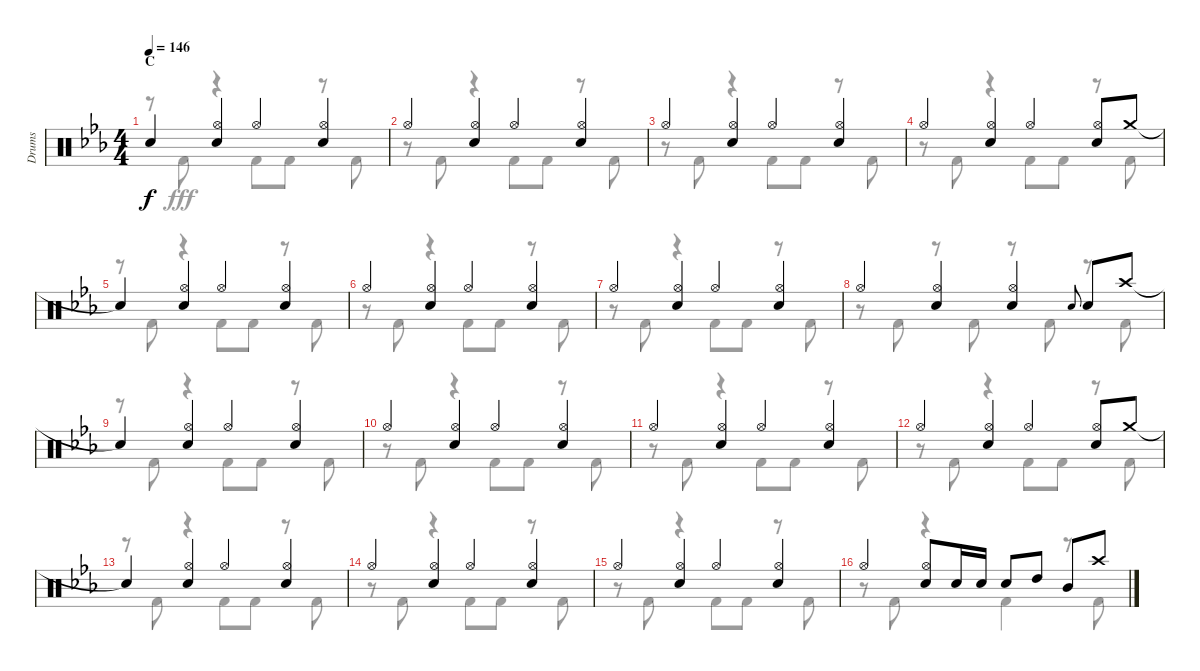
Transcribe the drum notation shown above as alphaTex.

\track ("Drums" "Drums") {instrument percussion}
\staff {score}
\articulation defaults
\voice
\ts (4 4)
\section ("" "C")
\tempo 146
\clef neutral
\ks eb "Snare (hit)"{t}.4{dy f}
("Hi-Hat (open)" "Snare (hit) 2").4 "Hi-Hat (open)".4 ("Hi-Hat (open)" "Snare (hit) 2").4 |
"Hi-Hat (open)".4 ("Hi-Hat (open)" "Snare (hit) 2").4 "Hi-Hat (open)".4 ("Hi-Hat (open)" "Snare (hit) 2").4 |
"Hi-Hat (open)".4 ("Hi-Hat (open)" "Snare (hit) 2").4 "Hi-Hat (open)".4 ("Hi-Hat (open)" "Snare (hit) 2").4 |
"Hi-Hat (open)".4 ("Hi-Hat (open)" "Snare (hit) 2").4 "Hi-Hat (open)".4 ("Hi-Hat (open)" "Snare (hit) 2").8 "Crash medium (hit)".8 |
"Snare (hit)"{t}.4 ("Hi-Hat (open)" "Snare (hit) 2").4 "Hi-Hat (open)".4 ("Hi-Hat (open)" "Snare (hit) 2").4 |
"Hi-Hat (open)".4 ("Hi-Hat (open)" "Snare (hit) 2").4 "Hi-Hat (open)".4 ("Hi-Hat (open)" "Snare (hit) 2").4 |
"Hi-Hat (open)".4 ("Hi-Hat (open)" "Snare (hit) 2").4 "Hi-Hat (open)".4 ("Hi-Hat (open)" "Snare (hit) 2").4 |
"Hi-Hat (open)".4 ("Hi-Hat (open)" "Snare (hit) 2").4 ("Hi-Hat (open)" "Snare (hit) 2").4 "Snare (hit) 2".8{gr onbeat} "Snare (hit) 2".8 "Crash high (hit)".8 |
"Snare (hit)"{t}.4 ("Hi-Hat (open)" "Snare (hit) 2").4 "Hi-Hat (open)".4 ("Hi-Hat (open)" "Snare (hit) 2").4 |
"Hi-Hat (open)".4 ("Hi-Hat (open)" "Snare (hit) 2").4 "Hi-Hat (open)".4 ("Hi-Hat (open)" "Snare (hit) 2").4 |
"Hi-Hat (open)".4 ("Hi-Hat (open)" "Snare (hit) 2").4 "Hi-Hat (open)".4 ("Hi-Hat (open)" "Snare (hit) 2").4 |
"Hi-Hat (open)".4 ("Hi-Hat (open)" "Snare (hit) 2").4 "Hi-Hat (open)".4 ("Hi-Hat (open)" "Snare (hit) 2").8 "Crash medium (hit)".8 |
"Snare (hit)"{t}.4 ("Hi-Hat (open)" "Snare (hit) 2").4 "Hi-Hat (open)".4 ("Hi-Hat (open)" "Snare (hit) 2").4 |
"Hi-Hat (open)".4 ("Hi-Hat (open)" "Snare (hit) 2").4 "Hi-Hat (open)".4 ("Hi-Hat (open)" "Snare (hit) 2").4 |
"Hi-Hat (open)".4 ("Hi-Hat (open)" "Snare (hit) 2").4 "Hi-Hat (open)".4 ("Hi-Hat (open)" "Snare (hit) 2").4 |
"Hi-Hat (open)".4 ("Hi-Hat (open)" "Snare (hit) 2").8 "Snare (hit) 2".16 "Snare (hit) 2".16 "Snare (hit) 2".8 "High Tom (hit)".8 "Mid Tom (hit)".8 "Crash high (hit)".8
\voice
\clef neutral
\ottava regular
\simile none
\ks eb
r.8{dy fff} "Kick (hit) 2".8 r.4 "Kick (hit) 2".8 "Kick (hit) 2".8 r.8 "Kick (hit) 2".8 |
r.8 "Kick (hit) 2".8 r.4 "Kick (hit) 2".8 "Kick (hit) 2".8 r.8 "Kick (hit) 2".8 |
r.8 "Kick (hit) 2".8 r.4 "Kick (hit) 2".8 "Kick (hit) 2".8 r.8 "Kick (hit) 2".8 |
r.8 "Kick (hit) 2".8 r.4 "Kick (hit) 2".8 "Kick (hit) 2".8 r.8 "Kick (hit) 2".8 |
r.8 "Kick (hit) 2".8 r.4 "Kick (hit) 2".8 "Kick (hit) 2".8 r.8 "Kick (hit) 2".8 |
r.8 "Kick (hit) 2".8 r.4 "Kick (hit) 2".8 "Kick (hit) 2".8 r.8 "Kick (hit) 2".8 |
r.8 "Kick (hit) 2".8 r.4 "Kick (hit) 2".8 "Kick (hit) 2".8 r.8 "Kick (hit) 2".8 |
r.8 "Kick (hit) 2".8 r.8 "Kick (hit) 2".8 r.8 "Kick (hit) 2".8 r.8 "Kick (hit) 2".8 |
r.8 "Kick (hit) 2".8 r.4 "Kick (hit) 2".8 "Kick (hit) 2".8 r.8 "Kick (hit) 2".8 |
r.8 "Kick (hit) 2".8 r.4 "Kick (hit) 2".8 "Kick (hit) 2".8 r.8 "Kick (hit) 2".8 |
r.8 "Kick (hit) 2".8 r.4 "Kick (hit) 2".8 "Kick (hit) 2".8 r.8 "Kick (hit) 2".8 |
r.8 "Kick (hit) 2".8 r.4 "Kick (hit) 2".8 "Kick (hit) 2".8 r.8 "Kick (hit) 2".8 |
r.8 "Kick (hit) 2".8 r.4 "Kick (hit) 2".8 "Kick (hit) 2".8 r.8 "Kick (hit) 2".8 |
r.8 "Kick (hit) 2".8 r.4 "Kick (hit) 2".8 "Kick (hit) 2".8 r.8 "Kick (hit) 2".8 |
r.8 "Kick (hit) 2".8 r.4 "Kick (hit) 2".8 "Kick (hit) 2".8 r.8 "Kick (hit) 2".8 |
r.8 "Kick (hit) 2".8 r.4 "Kick (hit) 2".4 r.8 "Kick (hit) 2".8
